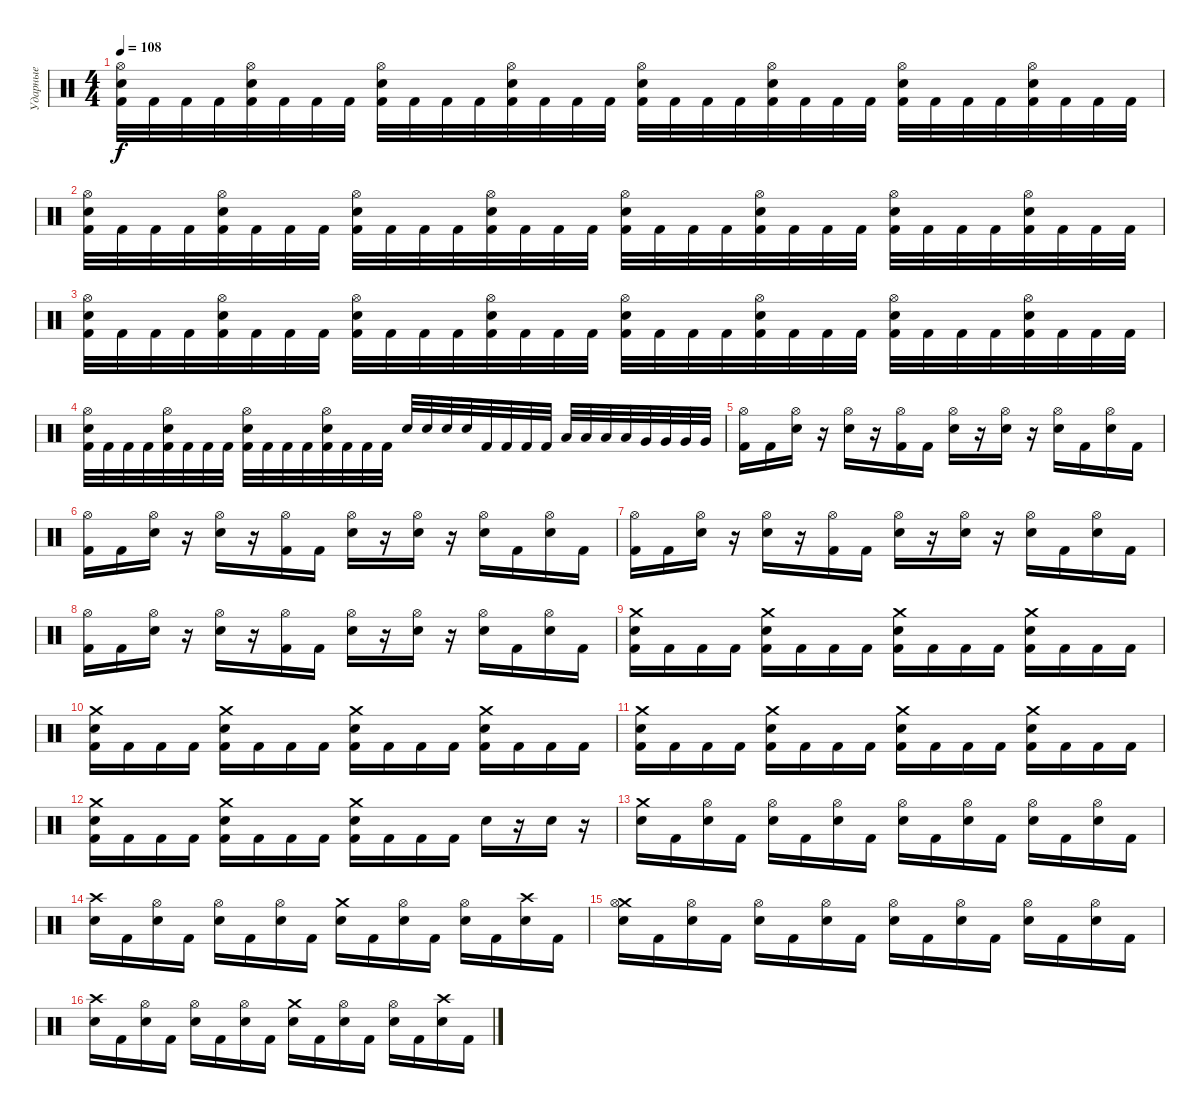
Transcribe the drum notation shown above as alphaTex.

\track ("Ударные" "Ударные") {instrument percussion}
\staff {score}
\articulation defaults
\ts (4 4)
\tempo 108
\clef neutral
\ks c
("Hi-Hat (open)" "Electric Snare (hit)" "Kick (hit) 2").32{dy f} "Kick (hit) 2".32 "Kick (hit) 2".32 "Kick (hit) 2".32 ("Hi-Hat (open)" "Electric Snare (hit)" "Kick (hit) 2").32 "Kick (hit) 2".32 "Kick (hit) 2".32 "Kick (hit) 2".32 ("Electric Snare (hit)" "Hi-Hat (open)" "Kick (hit) 2").32 "Kick (hit) 2".32 "Kick (hit) 2".32 "Kick (hit) 2".32 ("Hi-Hat (open)" "Electric Snare (hit)" "Kick (hit) 2").32 "Kick (hit) 2".32 "Kick (hit) 2".32 "Kick (hit) 2".32 ("Hi-Hat (open)" "Electric Snare (hit)" "Kick (hit) 2").32 "Kick (hit) 2".32 "Kick (hit) 2".32 "Kick (hit) 2".32 ("Hi-Hat (open)" "Electric Snare (hit)" "Kick (hit) 2").32 "Kick (hit) 2".32 "Kick (hit) 2".32 "Kick (hit) 2".32 ("Electric Snare (hit)" "Hi-Hat (open)" "Kick (hit) 2").32 "Kick (hit) 2".32 "Kick (hit) 2".32 "Kick (hit) 2".32 ("Hi-Hat (open)" "Electric Snare (hit)" "Kick (hit) 2").32 "Kick (hit) 2".32 "Kick (hit) 2".32 "Kick (hit) 2".32 |
("Hi-Hat (open)" "Electric Snare (hit)" "Kick (hit) 2").32 "Kick (hit) 2".32 "Kick (hit) 2".32 "Kick (hit) 2".32 ("Hi-Hat (open)" "Electric Snare (hit)" "Kick (hit) 2").32 "Kick (hit) 2".32 "Kick (hit) 2".32 "Kick (hit) 2".32 ("Electric Snare (hit)" "Hi-Hat (open)" "Kick (hit) 2").32 "Kick (hit) 2".32 "Kick (hit) 2".32 "Kick (hit) 2".32 ("Hi-Hat (open)" "Electric Snare (hit)" "Kick (hit) 2").32 "Kick (hit) 2".32 "Kick (hit) 2".32 "Kick (hit) 2".32 ("Hi-Hat (open)" "Electric Snare (hit)" "Kick (hit) 2").32 "Kick (hit) 2".32 "Kick (hit) 2".32 "Kick (hit) 2".32 ("Hi-Hat (open)" "Electric Snare (hit)" "Kick (hit) 2").32 "Kick (hit) 2".32 "Kick (hit) 2".32 "Kick (hit) 2".32 ("Electric Snare (hit)" "Hi-Hat (open)" "Kick (hit) 2").32 "Kick (hit) 2".32 "Kick (hit) 2".32 "Kick (hit) 2".32 ("Hi-Hat (open)" "Electric Snare (hit)" "Kick (hit) 2").32 "Kick (hit) 2".32 "Kick (hit) 2".32 "Kick (hit) 2".32 |
("Hi-Hat (open)" "Electric Snare (hit)" "Kick (hit) 2").32 "Kick (hit) 2".32 "Kick (hit) 2".32 "Kick (hit) 2".32 ("Hi-Hat (open)" "Electric Snare (hit)" "Kick (hit) 2").32 "Kick (hit) 2".32 "Kick (hit) 2".32 "Kick (hit) 2".32 ("Electric Snare (hit)" "Hi-Hat (open)" "Kick (hit) 2").32 "Kick (hit) 2".32 "Kick (hit) 2".32 "Kick (hit) 2".32 ("Hi-Hat (open)" "Electric Snare (hit)" "Kick (hit) 2").32 "Kick (hit) 2".32 "Kick (hit) 2".32 "Kick (hit) 2".32 ("Hi-Hat (open)" "Electric Snare (hit)" "Kick (hit) 2").32 "Kick (hit) 2".32 "Kick (hit) 2".32 "Kick (hit) 2".32 ("Hi-Hat (open)" "Electric Snare (hit)" "Kick (hit) 2").32 "Kick (hit) 2".32 "Kick (hit) 2".32 "Kick (hit) 2".32 ("Electric Snare (hit)" "Hi-Hat (open)" "Kick (hit) 2").32 "Kick (hit) 2".32 "Kick (hit) 2".32 "Kick (hit) 2".32 ("Hi-Hat (open)" "Electric Snare (hit)" "Kick (hit) 2").32 "Kick (hit) 2".32 "Kick (hit) 2".32 "Kick (hit) 2".32 |
("Hi-Hat (open)" "Electric Snare (hit)" "Kick (hit) 2").32 "Kick (hit) 2".32 "Kick (hit) 2".32 "Kick (hit) 2".32 ("Hi-Hat (open)" "Electric Snare (hit)" "Kick (hit) 2").32 "Kick (hit) 2".32 "Kick (hit) 2".32 "Kick (hit) 2".32 ("Electric Snare (hit)" "Hi-Hat (open)" "Kick (hit) 2").32 "Kick (hit) 2".32 "Kick (hit) 2".32 "Kick (hit) 2".32 ("Hi-Hat (open)" "Electric Snare (hit)" "Kick (hit) 2").32 "Kick (hit) 2".32 "Kick (hit) 2".32 "Kick (hit) 2".32 "Electric Snare (hit)".32 "Electric Snare (hit)".32 "Electric Snare (hit)".32 "Electric Snare (hit)".32 "Kick (hit) 2".32 "Kick (hit) 2".32 "Kick (hit) 2".32 "Kick (hit) 2".32 "Low Tom (hit)".32 "Low Tom (hit)".32 "Low Tom (hit)".32 "Low Tom (hit)".32 "Very Low Tom (hit)".32 "Very Low Tom (hit)".32 "Very Low Tom (hit)".32 "Very Low Tom (hit)".32 |
("Hi-Hat (open)" "Kick (hit) 2").16 "Kick (hit) 2".16 ("Hi-Hat (open)" "Electric Snare (hit)").16 r.16 ("Hi-Hat (open)" "Electric Snare (hit)").16 r.16 ("Hi-Hat (open)" "Kick (hit) 2").16 "Kick (hit) 2".16 ("Hi-Hat (open)" "Electric Snare (hit)").16 r.16 ("Hi-Hat (open)" "Electric Snare (hit)").16 r.16 ("Hi-Hat (open)" "Electric Snare (hit)").16 "Kick (hit) 2".16 ("Hi-Hat (open)" "Electric Snare (hit)").16 "Kick (hit) 2".16 |
("Hi-Hat (open)" "Kick (hit) 2").16 "Kick (hit) 2".16 ("Hi-Hat (open)" "Electric Snare (hit)").16 r.16 ("Hi-Hat (open)" "Electric Snare (hit)").16 r.16 ("Hi-Hat (open)" "Kick (hit) 2").16 "Kick (hit) 2".16 ("Hi-Hat (open)" "Electric Snare (hit)").16 r.16 ("Hi-Hat (open)" "Electric Snare (hit)").16 r.16 ("Hi-Hat (open)" "Electric Snare (hit)").16 "Kick (hit) 2".16 ("Hi-Hat (open)" "Electric Snare (hit)").16 "Kick (hit) 2".16 |
("Hi-Hat (open)" "Kick (hit) 2").16 "Kick (hit) 2".16 ("Hi-Hat (open)" "Electric Snare (hit)").16 r.16 ("Hi-Hat (open)" "Electric Snare (hit)").16 r.16 ("Hi-Hat (open)" "Kick (hit) 2").16 "Kick (hit) 2".16 ("Hi-Hat (open)" "Electric Snare (hit)").16 r.16 ("Hi-Hat (open)" "Electric Snare (hit)").16 r.16 ("Hi-Hat (open)" "Electric Snare (hit)").16 "Kick (hit) 2".16 ("Hi-Hat (open)" "Electric Snare (hit)").16 "Kick (hit) 2".16 |
("Hi-Hat (open)" "Kick (hit) 2").16 "Kick (hit) 2".16 ("Hi-Hat (open)" "Electric Snare (hit)").16 r.16 ("Hi-Hat (open)" "Electric Snare (hit)").16 r.16 ("Hi-Hat (open)" "Kick (hit) 2").16 "Kick (hit) 2".16 ("Hi-Hat (open)" "Electric Snare (hit)").16 r.16 ("Hi-Hat (open)" "Electric Snare (hit)").16 r.16 ("Hi-Hat (open)" "Electric Snare (hit)").16 "Kick (hit) 2".16 ("Hi-Hat (open)" "Electric Snare (hit)").16 "Kick (hit) 2".16 |
("Crash medium (hit)" "Electric Snare (hit)" "Kick (hit) 2").16 "Kick (hit) 2".16 "Kick (hit) 2".16 "Kick (hit) 2".16 ("Crash medium (hit)" "Electric Snare (hit)" "Kick (hit) 2").16 "Kick (hit) 2".16 "Kick (hit) 2".16 "Kick (hit) 2".16 ("Crash medium (hit)" "Electric Snare (hit)" "Kick (hit) 2").16 "Kick (hit) 2".16 "Kick (hit) 2".16 "Kick (hit) 2".16 ("Crash medium (hit)" "Electric Snare (hit)" "Kick (hit) 2").16 "Kick (hit) 2".16 "Kick (hit) 2".16 "Kick (hit) 2".16 |
("Crash medium (hit)" "Electric Snare (hit)" "Kick (hit) 2").16 "Kick (hit) 2".16 "Kick (hit) 2".16 "Kick (hit) 2".16 ("Crash medium (hit)" "Electric Snare (hit)" "Kick (hit) 2").16 "Kick (hit) 2".16 "Kick (hit) 2".16 "Kick (hit) 2".16 ("Crash medium (hit)" "Electric Snare (hit)" "Kick (hit) 2").16 "Kick (hit) 2".16 "Kick (hit) 2".16 "Kick (hit) 2".16 ("Crash medium (hit)" "Electric Snare (hit)" "Kick (hit) 2").16 "Kick (hit) 2".16 "Kick (hit) 2".16 "Kick (hit) 2".16 |
("Crash medium (hit)" "Electric Snare (hit)" "Kick (hit) 2").16 "Kick (hit) 2".16 "Kick (hit) 2".16 "Kick (hit) 2".16 ("Crash medium (hit)" "Electric Snare (hit)" "Kick (hit) 2").16 "Kick (hit) 2".16 "Kick (hit) 2".16 "Kick (hit) 2".16 ("Crash medium (hit)" "Electric Snare (hit)" "Kick (hit) 2").16 "Kick (hit) 2".16 "Kick (hit) 2".16 "Kick (hit) 2".16 ("Crash medium (hit)" "Electric Snare (hit)" "Kick (hit) 2").16 "Kick (hit) 2".16 "Kick (hit) 2".16 "Kick (hit) 2".16 |
("Crash medium (hit)" "Electric Snare (hit)" "Kick (hit) 2").16 "Kick (hit) 2".16 "Kick (hit) 2".16 "Kick (hit) 2".16 ("Crash medium (hit)" "Electric Snare (hit)" "Kick (hit) 2").16 "Kick (hit) 2".16 "Kick (hit) 2".16 "Kick (hit) 2".16 ("Crash medium (hit)" "Electric Snare (hit)" "Kick (hit) 2").16 "Kick (hit) 2".16 "Kick (hit) 2".16 "Kick (hit) 2".16 "Electric Snare (hit)".16 r.16 "Electric Snare (hit)".16 r.16 |
("Crash medium (hit)" "Electric Snare (hit)").16 "Kick (hit) 2".16 ("Hi-Hat (open)" "Electric Snare (hit)").16 "Kick (hit) 2".16 ("Hi-Hat (open)" "Electric Snare (hit)").16 "Kick (hit) 2".16 ("Hi-Hat (open)" "Electric Snare (hit)").16 "Kick (hit) 2".16 ("Hi-Hat (open)" "Electric Snare (hit)").16 "Kick (hit) 2".16 ("Hi-Hat (open)" "Electric Snare (hit)").16 "Kick (hit) 2".16 ("Hi-Hat (open)" "Electric Snare (hit)").16 "Kick (hit) 2".16 ("Hi-Hat (open)" "Electric Snare (hit)").16 "Kick (hit) 2".16 |
("Crash high (hit)" "Electric Snare (hit)").16 "Kick (hit) 2".16 ("Hi-Hat (open)" "Electric Snare (hit)").16 "Kick (hit) 2".16 ("Hi-Hat (open)" "Electric Snare (hit)").16 "Kick (hit) 2".16 ("Hi-Hat (open)" "Electric Snare (hit)").16 "Kick (hit) 2".16 ("Crash medium (hit)" "Electric Snare (hit)").16 "Kick (hit) 2".16 ("Hi-Hat (open)" "Electric Snare (hit)").16 "Kick (hit) 2".16 ("Hi-Hat (open)" "Electric Snare (hit)").16 "Kick (hit) 2".16 ("Crash high (hit)" "Electric Snare (hit)").16 "Kick (hit) 2".16 |
("Crash medium (hit)" "Hi-Hat (open)" "Electric Snare (hit)").16 "Kick (hit) 2".16 ("Hi-Hat (open)" "Electric Snare (hit)").16 "Kick (hit) 2".16 ("Hi-Hat (open)" "Electric Snare (hit)").16 "Kick (hit) 2".16 ("Hi-Hat (open)" "Electric Snare (hit)").16 "Kick (hit) 2".16 ("Hi-Hat (open)" "Electric Snare (hit)").16 "Kick (hit) 2".16 ("Hi-Hat (open)" "Electric Snare (hit)").16 "Kick (hit) 2".16 ("Hi-Hat (open)" "Electric Snare (hit)").16 "Kick (hit) 2".16 ("Hi-Hat (open)" "Electric Snare (hit)").16 "Kick (hit) 2".16 |
("Crash high (hit)" "Electric Snare (hit)").16 "Kick (hit) 2".16 ("Hi-Hat (open)" "Electric Snare (hit)").16 "Kick (hit) 2".16 ("Hi-Hat (open)" "Electric Snare (hit)").16 "Kick (hit) 2".16 ("Hi-Hat (open)" "Electric Snare (hit)").16 "Kick (hit) 2".16 ("Crash medium (hit)" "Electric Snare (hit)").16 "Kick (hit) 2".16 ("Hi-Hat (open)" "Electric Snare (hit)").16 "Kick (hit) 2".16 ("Hi-Hat (open)" "Electric Snare (hit)").16 "Kick (hit) 2".16 ("Crash high (hit)" "Electric Snare (hit)").16 "Kick (hit) 2".16
